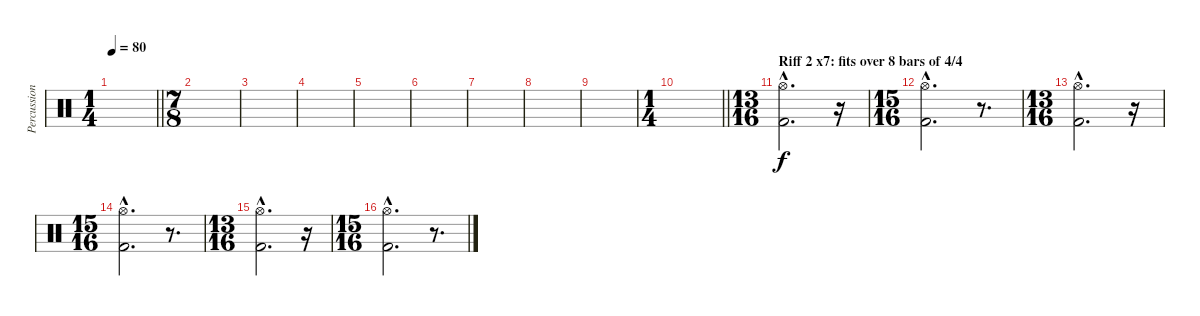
\track ("Percussion" "Percussion") {instrument percussion}
\staff {score}
\articulation defaults
\ts (1 4)
\tempo 80
\clef neutral
\barLineRight lightlight
\ks c
|
\ts (7 8)
\section ("" "")
|
|
|
|
|
|
|
|
\ts (1 4)
\barLineRight lightlight
|
\ts (13 16)
\section ("" "Riff 2 x7: fits over 8 bars of 4/4")
("Hi-Hat (open)"{hac} "Kick (hit) 2"{hac}).2{d} r.16 |
\ts (15 16)
("Hi-Hat (open)"{hac} "Kick (hit) 2"{hac}).2{d} r.8{d} |
\ts (13 16)
("Hi-Hat (open)"{hac} "Kick (hit) 2"{hac}).2{d} r.16 |
\ts (15 16)
("Hi-Hat (open)"{hac} "Kick (hit) 2"{hac}).2{d} r.8{d} |
\ts (13 16)
("Hi-Hat (open)"{hac} "Kick (hit) 2"{hac}).2{d} r.16 |
\ts (15 16)
("Hi-Hat (open)"{hac} "Kick (hit) 2"{hac}).2{d} r.8{d}
